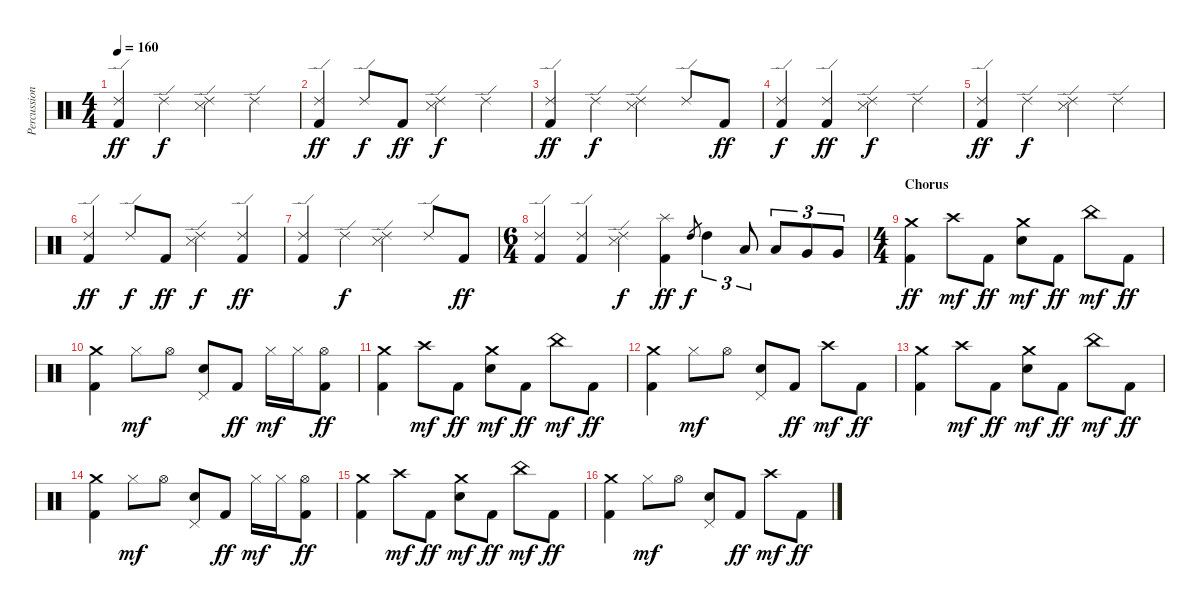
\track ("Percussion" "Percussion") {instrument percussion}
\staff {score}
\articulation defaults
\ts (4 4)
\tempo 160
\clef neutral
\ks c
("Ride (edge) 2" "Kick (hit) 2").4{dy ff} "Ride (edge) 2".4{dy f} ("Ride (edge) 2" "Snare (side stick) 3").4 "Ride (edge) 2".4 |
("Ride (edge) 2" "Kick (hit) 2").4{dy ff} "Ride (edge) 2".8{dy f} "Kick (hit) 2".8{dy ff} ("Ride (edge) 2" "Snare (side stick) 3").4{dy f} "Ride (edge) 2".4 |
("Ride (edge) 2" "Kick (hit) 2").4{dy ff} "Ride (edge) 2".4{dy f} ("Ride (edge) 2" "Snare (side stick) 3").4 "Ride (edge) 2".8 "Kick (hit) 2".8{dy ff} |
("Ride (edge) 2" "Kick (hit) 2").4{dy f} ("Ride (edge) 2" "Kick (hit) 2").4{dy ff} ("Ride (edge) 2" "Snare (side stick) 3").4{dy f} "Ride (edge) 2".4 |
("Ride (edge) 2" "Kick (hit) 2").4{dy ff} "Ride (edge) 2".4{dy f} ("Ride (edge) 2" "Snare (side stick) 3").4 "Ride (edge) 2".4 |
("Ride (edge) 2" "Kick (hit) 2").4{dy ff} "Ride (edge) 2".8{dy f} "Kick (hit) 2".8{dy ff} ("Ride (edge) 2" "Snare (side stick) 3").4{dy f} ("Ride (edge) 2" "Kick (hit) 2").4{dy ff} |
("Ride (edge) 2" "Kick (hit) 2").4 "Ride (edge) 2".4{dy f} ("Ride (edge) 2" "Snare (side stick) 3").4 "Ride (edge) 2".8 "Kick (hit) 2".8{dy ff} |
\ts (6 4)
("Ride (edge) 2" "Kick (hit) 2").4 ("Ride (edge) 2" "Kick (hit) 2").4 ("Ride (edge) 2" "Snare (side stick) 3").4{dy f} ("Splash (hit)" "Kick (hit) 2").4{dy ff} "High Tom (hit)".8{gr dy f} "High Tom (hit)".4{tu (3 2)} "Low Tom (hit)".8{tu (3 2)} "Low Tom (hit)".8{tu (3 2)} "Very Low Tom (hit)".8{tu (3 2)} "Very Low Tom (hit)".8{tu (3 2)} |
\ts (4 4)
\section ("" "Chorus")
("Crash medium (hit)" "Kick (hit) 2").4{dy ff} "Crash high (hit)".8{dy mf} "Kick (hit) 2".8{dy ff} ("Crash medium (hit)" "Electric Snare (hit)").8{dy mf} "Kick (hit) 2".8{dy ff} "China (hit)".8{dy mf} "Kick (hit) 2".8{dy ff} |
("Crash medium (hit)" "Kick (hit) 2").4 "Hi-Hat (closed)".8{dy mf} "Hi-Hat (open)".8 ("Pedal Hi-Hat (hit)" "Electric Snare (hit)").8 "Kick (hit) 2".8{dy ff} "Hi-Hat (closed)".16{dy mf} "Hi-Hat (closed)".16 ("Hi-Hat (open)" "Kick (hit) 2").8{dy ff} |
("Crash medium (hit)" "Kick (hit) 2").4 "Crash high (hit)".8{dy mf} "Kick (hit) 2".8{dy ff} ("Crash medium (hit)" "Electric Snare (hit)").8{dy mf} "Kick (hit) 2".8{dy ff} "China (hit)".8{dy mf} "Kick (hit) 2".8{dy ff} |
("Crash medium (hit)" "Kick (hit) 2").4 "Hi-Hat (closed)".8{dy mf} "Hi-Hat (open)".8 ("Pedal Hi-Hat (hit)" "Electric Snare (hit)").8 "Kick (hit) 2".8{dy ff} "Crash high (hit)".8{dy mf} "Kick (hit) 2".8{dy ff} |
("Crash medium (hit)" "Kick (hit) 2").4 "Crash high (hit)".8{dy mf} "Kick (hit) 2".8{dy ff} ("Crash medium (hit)" "Electric Snare (hit)").8{dy mf} "Kick (hit) 2".8{dy ff} "China (hit)".8{dy mf} "Kick (hit) 2".8{dy ff} |
("Crash medium (hit)" "Kick (hit) 2").4 "Hi-Hat (closed)".8{dy mf} "Hi-Hat (open)".8 ("Pedal Hi-Hat (hit)" "Electric Snare (hit)").8 "Kick (hit) 2".8{dy ff} "Hi-Hat (closed)".16{dy mf} "Hi-Hat (closed)".16 ("Hi-Hat (open)" "Kick (hit) 2").8{dy ff} |
("Crash medium (hit)" "Kick (hit) 2").4 "Crash high (hit)".8{dy mf} "Kick (hit) 2".8{dy ff} ("Crash medium (hit)" "Electric Snare (hit)").8{dy mf} "Kick (hit) 2".8{dy ff} "China (hit)".8{dy mf} "Kick (hit) 2".8{dy ff} |
("Crash medium (hit)" "Kick (hit) 2").4 "Hi-Hat (closed)".8{dy mf} "Hi-Hat (open)".8 ("Pedal Hi-Hat (hit)" "Electric Snare (hit)").8 "Kick (hit) 2".8{dy ff} "Crash high (hit)".8{dy mf} "Kick (hit) 2".8{dy ff}
